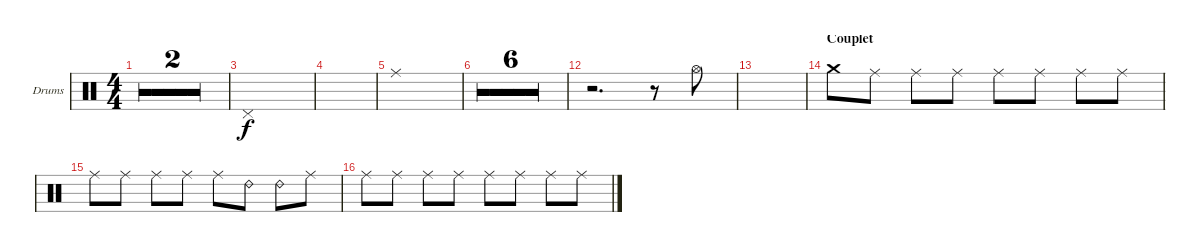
\defaultSystemsLayout 4
\bracketExtendMode groupsimilarinstruments
\firstSystemTrackNameOrientation horizontal
\otherSystemsTrackNameOrientation horizontal
\track ("Drumkit" "Drums") {multiBarRest instrument percussion}
\staff {score}
\articulation defaults
\ts (4 4)
\tempo 120
\clef neutral
\ks c
|
|
"Pedal Hi-Hat (hit)".1 |
|
"Ride (middle)".1 |
|
|
|
|
|
|
r.2{d} r.8 "Hi-Hat (open)".8 |
|
\section ("" "Couplet")
"Crash medium (hit)".8 "Ride (middle)".8 "Ride (middle)".8 "Ride (middle)".8 "Ride (middle)".8 "Ride (middle)".8 "Ride (middle)".8 "Ride (middle)".8 |
"Ride (middle)".8 "Ride (middle)".8 "Ride (middle)".8 "Ride (middle)".8 "Ride (middle)".8 "Ride (bell) 2".8 "Ride (bell) 2".8 "Ride (middle)".8 |
"Ride (middle)".8 "Ride (middle)".8 "Ride (middle)".8 "Ride (middle)".8 "Ride (middle)".8 "Ride (middle)".8 "Ride (middle)".8 "Ride (middle)".8
